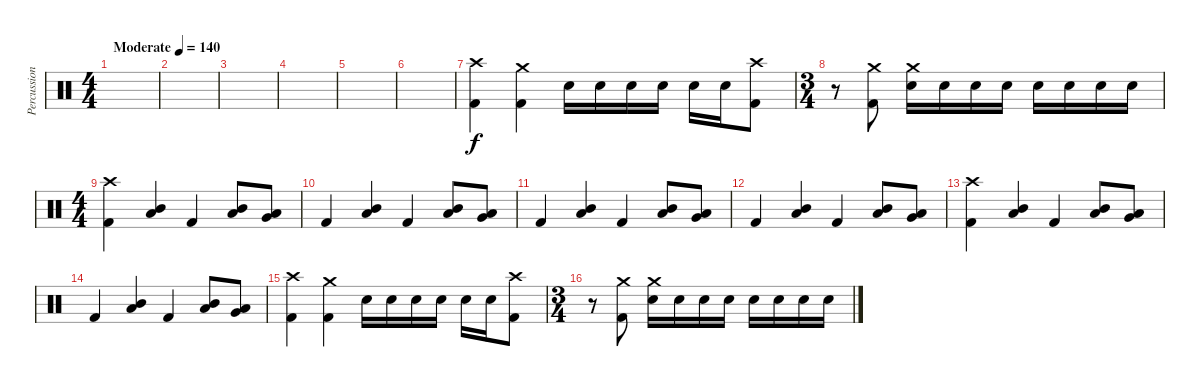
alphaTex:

\track ("Percussion" "Percussion") {instrument percussion}
\staff {score}
\articulation defaults
\ts (4 4)
\tempo (140 "Moderate")
\clef neutral
\ks c
|
|
|
|
|
|
("Crash high (hit)" "Kick (hit) 2").4 ("Crash medium (hit)" "Kick (hit) 2").4 "Snare (hit) 2".16 "Snare (hit) 2".16 "Snare (hit) 2".16 "Snare (hit) 2".16 "Snare (hit) 2".16 "Snare (hit) 2".16 ("Crash high (hit)" "Kick (hit) 2").8 |
\ts (3 4)
r.8 ("Crash medium (hit)" "Kick (hit) 2").8 ("Crash medium (hit)" "Snare (hit) 2").16 "Snare (hit) 2".16 "Snare (hit) 2".16 "Snare (hit) 2".16 "Snare (hit) 2".16 "Snare (hit) 2".16 "Snare (hit) 2".16 "Snare (hit) 2".16 |
\ts (4 4)
("Crash high (hit)" "Kick (hit) 2").4 ("Low Tom (hit)" "Mid Tom (hit)").4 "Kick (hit) 2".4 ("Low Tom (hit)" "Mid Tom (hit)").8 ("Low Tom (hit)" "Very Low Tom (hit)").8 |
"Kick (hit) 2".4 ("Low Tom (hit)" "Mid Tom (hit)").4 "Kick (hit) 2".4 ("Low Tom (hit)" "Mid Tom (hit)").8 ("Low Tom (hit)" "Very Low Tom (hit)").8 |
"Kick (hit) 2".4 ("Low Tom (hit)" "Mid Tom (hit)").4 "Kick (hit) 2".4 ("Low Tom (hit)" "Mid Tom (hit)").8 ("Low Tom (hit)" "Very Low Tom (hit)").8 |
"Kick (hit) 2".4 ("Low Tom (hit)" "Mid Tom (hit)").4 "Kick (hit) 2".4 ("Low Tom (hit)" "Mid Tom (hit)").8 ("Low Tom (hit)" "Very Low Tom (hit)").8 |
("Crash high (hit)" "Kick (hit) 2").4 ("Low Tom (hit)" "Mid Tom (hit)").4 "Kick (hit) 2".4 ("Low Tom (hit)" "Mid Tom (hit)").8 ("Low Tom (hit)" "Very Low Tom (hit)").8 |
"Kick (hit) 2".4 ("Low Tom (hit)" "Mid Tom (hit)").4 "Kick (hit) 2".4 ("Low Tom (hit)" "Mid Tom (hit)").8 ("Low Tom (hit)" "Very Low Tom (hit)").8 |
("Crash high (hit)" "Kick (hit) 2").4 ("Crash medium (hit)" "Kick (hit) 2").4 "Snare (hit) 2".16 "Snare (hit) 2".16 "Snare (hit) 2".16 "Snare (hit) 2".16 "Snare (hit) 2".16 "Snare (hit) 2".16 ("Crash high (hit)" "Kick (hit) 2").8 |
\ts (3 4)
r.8 ("Crash medium (hit)" "Kick (hit) 2").8 ("Crash medium (hit)" "Snare (hit) 2").16 "Snare (hit) 2".16 "Snare (hit) 2".16 "Snare (hit) 2".16 "Snare (hit) 2".16 "Snare (hit) 2".16 "Snare (hit) 2".16 "Snare (hit) 2".16
